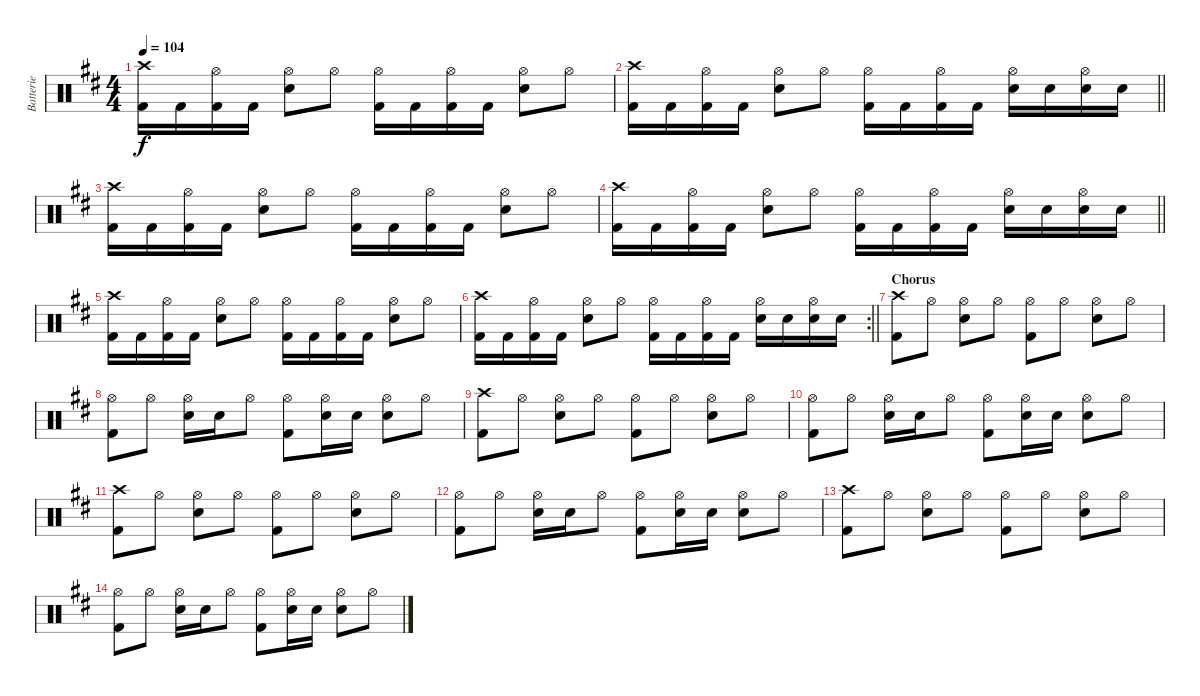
\track ("Batterie" "Batterie") {instrument percussion}
\staff {score}
\articulation defaults
\ts (4 4)
\tempo 104
\clef neutral
\ks d
("Crash high (hit)" "Kick (hit) 2").16{dy f} "Kick (hit) 2".16 ("Hi-Hat (open)" "Kick (hit) 2").16 "Kick (hit) 2".16 ("Hi-Hat (open)" "Snare (hit) 2").8 "Hi-Hat (open)".8 ("Hi-Hat (open)" "Kick (hit) 2").16 "Kick (hit) 2".16 ("Hi-Hat (open)" "Kick (hit) 2").16 "Kick (hit) 2".16 ("Hi-Hat (open)" "Snare (hit) 2").8 "Hi-Hat (open)".8 |
\barLineRight lightlight
("Crash high (hit)" "Kick (hit) 2").16 "Kick (hit) 2".16 ("Hi-Hat (open)" "Kick (hit) 2").16 "Kick (hit) 2".16 ("Hi-Hat (open)" "Snare (hit) 2").8 "Hi-Hat (open)".8 ("Hi-Hat (open)" "Kick (hit) 2").16 "Kick (hit) 2".16 ("Hi-Hat (open)" "Kick (hit) 2").16 "Kick (hit) 2".16 ("Hi-Hat (open)" "Snare (hit) 2").16 "Snare (hit) 2".16 ("Hi-Hat (open)" "Snare (hit) 2").16 "Snare (hit) 2".16 |
("Crash high (hit)" "Kick (hit) 2").16 "Kick (hit) 2".16 ("Hi-Hat (open)" "Kick (hit) 2").16 "Kick (hit) 2".16 ("Hi-Hat (open)" "Snare (hit) 2").8 "Hi-Hat (open)".8 ("Hi-Hat (open)" "Kick (hit) 2").16 "Kick (hit) 2".16 ("Hi-Hat (open)" "Kick (hit) 2").16 "Kick (hit) 2".16 ("Hi-Hat (open)" "Snare (hit) 2").8 "Hi-Hat (open)".8 |
\barLineRight lightlight
("Crash high (hit)" "Kick (hit) 2").16 "Kick (hit) 2".16 ("Hi-Hat (open)" "Kick (hit) 2").16 "Kick (hit) 2".16 ("Hi-Hat (open)" "Snare (hit) 2").8 "Hi-Hat (open)".8 ("Hi-Hat (open)" "Kick (hit) 2").16 "Kick (hit) 2".16 ("Hi-Hat (open)" "Kick (hit) 2").16 "Kick (hit) 2".16 ("Hi-Hat (open)" "Snare (hit) 2").16 "Snare (hit) 2".16 ("Hi-Hat (open)" "Snare (hit) 2").16 "Snare (hit) 2".16 |
("Crash high (hit)" "Kick (hit) 2").16 "Kick (hit) 2".16 ("Hi-Hat (open)" "Kick (hit) 2").16 "Kick (hit) 2".16 ("Hi-Hat (open)" "Snare (hit) 2").8 "Hi-Hat (open)".8 ("Hi-Hat (open)" "Kick (hit) 2").16 "Kick (hit) 2".16 ("Hi-Hat (open)" "Kick (hit) 2").16 "Kick (hit) 2".16 ("Hi-Hat (open)" "Snare (hit) 2").8 "Hi-Hat (open)".8 |
\rc 2
\barLineRight lightlight
("Crash high (hit)" "Kick (hit) 2").16 "Kick (hit) 2".16 ("Hi-Hat (open)" "Kick (hit) 2").16 "Kick (hit) 2".16 ("Hi-Hat (open)" "Snare (hit) 2").8 "Hi-Hat (open)".8 ("Hi-Hat (open)" "Kick (hit) 2").16 "Kick (hit) 2".16 ("Hi-Hat (open)" "Kick (hit) 2").16 "Kick (hit) 2".16 ("Hi-Hat (open)" "Snare (hit) 2").16 "Snare (hit) 2".16 ("Hi-Hat (open)" "Snare (hit) 2").16 "Snare (hit) 2".16 |
\section ("" "Chorus")
("Crash high (hit)" "Kick (hit) 2").8 "Hi-Hat (open)".8 ("Hi-Hat (open)" "Snare (hit) 2").8 "Hi-Hat (open)".8 ("Hi-Hat (open)" "Kick (hit) 2").8 "Hi-Hat (open)".8 ("Hi-Hat (open)" "Snare (hit) 2").8 "Hi-Hat (open)".8 |
("Hi-Hat (open)" "Kick (hit) 2").8 "Hi-Hat (open)".8 ("Hi-Hat (open)" "Snare (hit) 2").16 "Snare (hit) 2".16 "Hi-Hat (open)".8 ("Hi-Hat (open)" "Kick (hit) 2").8 ("Hi-Hat (open)" "Snare (hit) 2").16 "Snare (hit) 2".16 ("Hi-Hat (open)" "Snare (hit) 2").8 "Hi-Hat (open)".8 |
("Crash high (hit)" "Kick (hit) 2").8 "Hi-Hat (open)".8 ("Hi-Hat (open)" "Snare (hit) 2").8 "Hi-Hat (open)".8 ("Hi-Hat (open)" "Kick (hit) 2").8 "Hi-Hat (open)".8 ("Hi-Hat (open)" "Snare (hit) 2").8 "Hi-Hat (open)".8 |
("Hi-Hat (open)" "Kick (hit) 2").8 "Hi-Hat (open)".8 ("Hi-Hat (open)" "Snare (hit) 2").16 "Snare (hit) 2".16 "Hi-Hat (open)".8 ("Hi-Hat (open)" "Kick (hit) 2").8 ("Hi-Hat (open)" "Snare (hit) 2").16 "Snare (hit) 2".16 ("Hi-Hat (open)" "Snare (hit) 2").8 "Hi-Hat (open)".8 |
("Crash high (hit)" "Kick (hit) 2").8 "Hi-Hat (open)".8 ("Hi-Hat (open)" "Snare (hit) 2").8 "Hi-Hat (open)".8 ("Hi-Hat (open)" "Kick (hit) 2").8 "Hi-Hat (open)".8 ("Hi-Hat (open)" "Snare (hit) 2").8 "Hi-Hat (open)".8 |
("Hi-Hat (open)" "Kick (hit) 2").8 "Hi-Hat (open)".8 ("Hi-Hat (open)" "Snare (hit) 2").16 "Snare (hit) 2".16 "Hi-Hat (open)".8 ("Hi-Hat (open)" "Kick (hit) 2").8 ("Hi-Hat (open)" "Snare (hit) 2").16 "Snare (hit) 2".16 ("Hi-Hat (open)" "Snare (hit) 2").8 "Hi-Hat (open)".8 |
("Crash high (hit)" "Kick (hit) 2").8 "Hi-Hat (open)".8 ("Hi-Hat (open)" "Snare (hit) 2").8 "Hi-Hat (open)".8 ("Hi-Hat (open)" "Kick (hit) 2").8 "Hi-Hat (open)".8 ("Hi-Hat (open)" "Snare (hit) 2").8 "Hi-Hat (open)".8 |
("Hi-Hat (open)" "Kick (hit) 2").8 "Hi-Hat (open)".8 ("Hi-Hat (open)" "Snare (hit) 2").16 "Snare (hit) 2".16 "Hi-Hat (open)".8 ("Hi-Hat (open)" "Kick (hit) 2").8 ("Hi-Hat (open)" "Snare (hit) 2").16 "Snare (hit) 2".16 ("Hi-Hat (open)" "Snare (hit) 2").8 "Hi-Hat (open)".8
